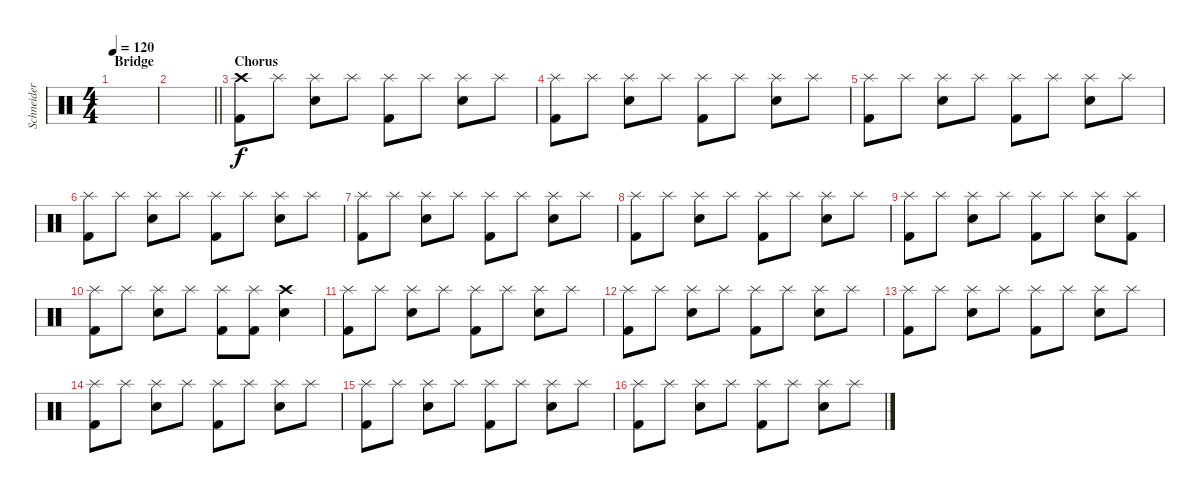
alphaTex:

\track ("Schneider" "Schneider") {instrument percussion}
\staff {score}
\articulation defaults
\ts (4 4)
\section ("" "Bridge")
\tempo 120
\clef neutral
\ks c
|
\barLineRight lightlight
|
\section ("" "Chorus")
("Crash high (hit)" "Kick (hit) 2").8 "Splash (hit)".8 ("Splash (hit)" "Electric Snare (hit)").8 "Splash (hit)".8 ("Splash (hit)" "Kick (hit) 2").8 "Splash (hit)".8 ("Splash (hit)" "Electric Snare (hit)").8 "Splash (hit)".8 |
("Splash (hit)" "Kick (hit) 2").8 "Splash (hit)".8 ("Splash (hit)" "Electric Snare (hit)").8 "Splash (hit)".8 ("Splash (hit)" "Kick (hit) 2").8 "Splash (hit)".8 ("Splash (hit)" "Electric Snare (hit)").8 "Splash (hit)".8 |
("Splash (hit)" "Kick (hit) 2").8 "Splash (hit)".8 ("Splash (hit)" "Electric Snare (hit)").8 "Splash (hit)".8 ("Splash (hit)" "Kick (hit) 2").8 "Splash (hit)".8 ("Splash (hit)" "Electric Snare (hit)").8 "Splash (hit)".8 |
("Splash (hit)" "Kick (hit) 2").8 "Splash (hit)".8 ("Splash (hit)" "Electric Snare (hit)").8 "Splash (hit)".8 ("Splash (hit)" "Kick (hit) 2").8 "Splash (hit)".8 ("Splash (hit)" "Electric Snare (hit)").8 "Splash (hit)".8 |
("Splash (hit)" "Kick (hit) 2").8 "Splash (hit)".8 ("Splash (hit)" "Electric Snare (hit)").8 "Splash (hit)".8 ("Splash (hit)" "Kick (hit) 2").8 "Splash (hit)".8 ("Splash (hit)" "Electric Snare (hit)").8 "Splash (hit)".8 |
("Splash (hit)" "Kick (hit) 2").8 "Splash (hit)".8 ("Splash (hit)" "Electric Snare (hit)").8 "Splash (hit)".8 ("Splash (hit)" "Kick (hit) 2").8 "Splash (hit)".8 ("Splash (hit)" "Electric Snare (hit)").8 "Splash (hit)".8 |
("Splash (hit)" "Kick (hit) 2").8 "Splash (hit)".8 ("Splash (hit)" "Electric Snare (hit)").8 "Splash (hit)".8 ("Splash (hit)" "Kick (hit) 2").8 "Splash (hit)".8 ("Splash (hit)" "Electric Snare (hit)").8 ("Splash (hit)" "Kick (hit) 2").8 |
("Splash (hit)" "Kick (hit) 2").8 "Splash (hit)".8 ("Splash (hit)" "Electric Snare (hit)").8 "Splash (hit)".8 ("Splash (hit)" "Kick (hit) 2").8 ("Splash (hit)" "Kick (hit) 2").8 ("Crash high (hit)" "Electric Snare (hit)").4 |
("Splash (hit)" "Kick (hit) 2").8 "Splash (hit)".8 ("Splash (hit)" "Electric Snare (hit)").8 "Splash (hit)".8 ("Splash (hit)" "Kick (hit) 2").8 "Splash (hit)".8 ("Splash (hit)" "Electric Snare (hit)").8 "Splash (hit)".8 |
("Splash (hit)" "Kick (hit) 2").8 "Splash (hit)".8 ("Splash (hit)" "Electric Snare (hit)").8 "Splash (hit)".8 ("Splash (hit)" "Kick (hit) 2").8 "Splash (hit)".8 ("Splash (hit)" "Electric Snare (hit)").8 "Splash (hit)".8 |
("Splash (hit)" "Kick (hit) 2").8 "Splash (hit)".8 ("Splash (hit)" "Electric Snare (hit)").8 "Splash (hit)".8 ("Splash (hit)" "Kick (hit) 2").8 "Splash (hit)".8 ("Splash (hit)" "Electric Snare (hit)").8 "Splash (hit)".8 |
("Splash (hit)" "Kick (hit) 2").8 "Splash (hit)".8 ("Splash (hit)" "Electric Snare (hit)").8 "Splash (hit)".8 ("Splash (hit)" "Kick (hit) 2").8 "Splash (hit)".8 ("Splash (hit)" "Electric Snare (hit)").8 "Splash (hit)".8 |
("Splash (hit)" "Kick (hit) 2").8 "Splash (hit)".8 ("Splash (hit)" "Electric Snare (hit)").8 "Splash (hit)".8 ("Splash (hit)" "Kick (hit) 2").8 "Splash (hit)".8 ("Splash (hit)" "Electric Snare (hit)").8 "Splash (hit)".8 |
("Splash (hit)" "Kick (hit) 2").8 "Splash (hit)".8 ("Splash (hit)" "Electric Snare (hit)").8 "Splash (hit)".8 ("Splash (hit)" "Kick (hit) 2").8 "Splash (hit)".8 ("Splash (hit)" "Electric Snare (hit)").8 "Splash (hit)".8
